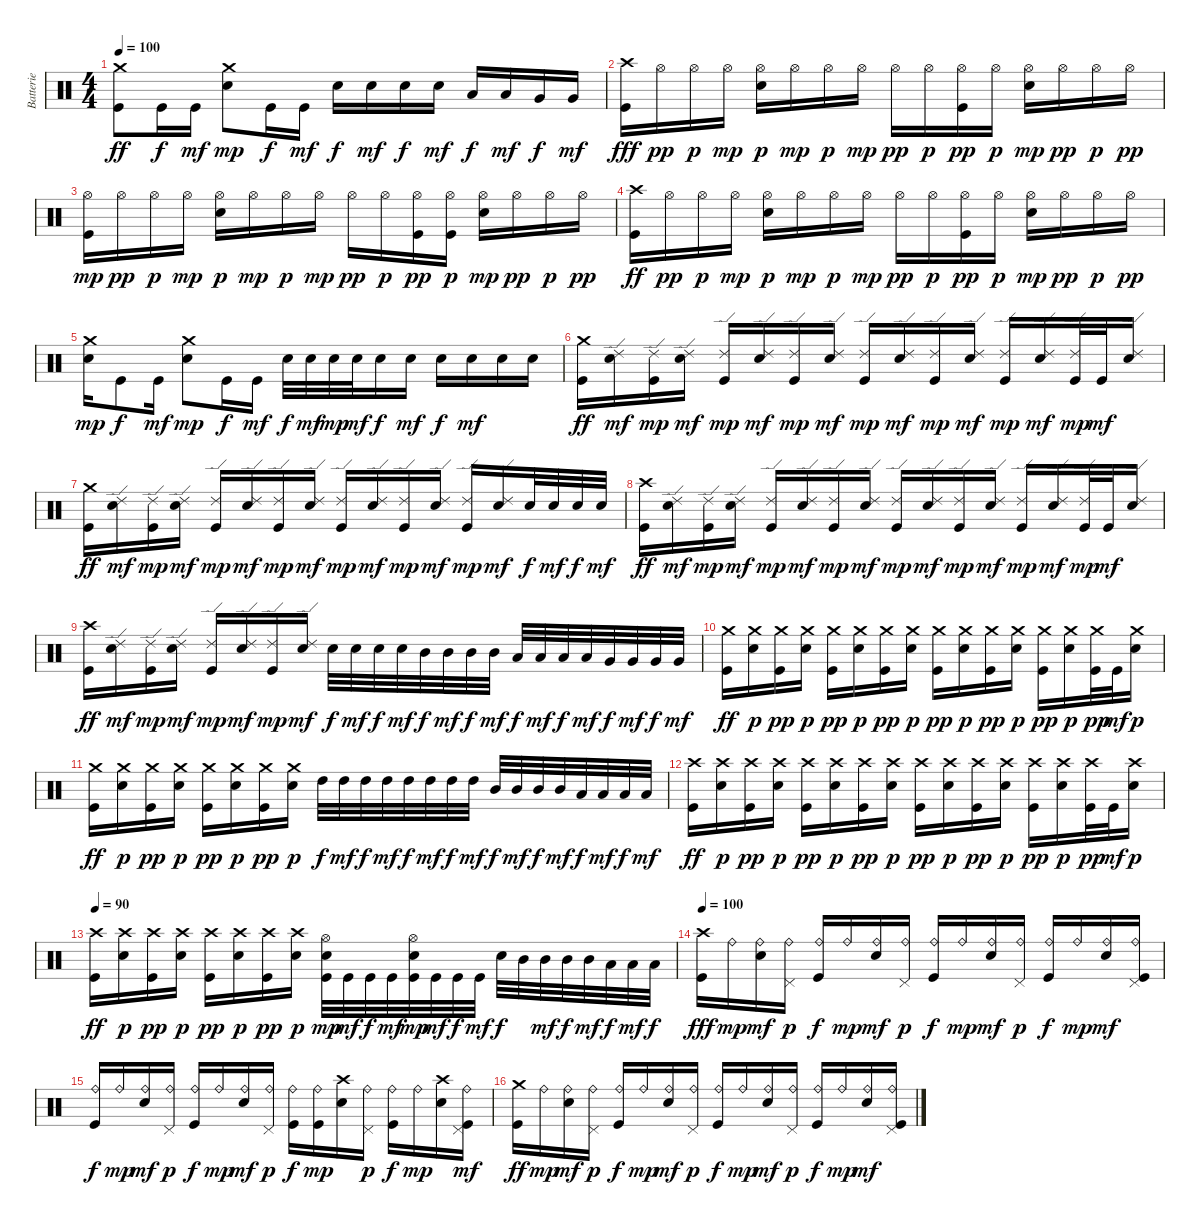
\track ("Batterie" "Batterie") {instrument percussion}
\staff {score}
\articulation defaults
\ts (4 4)
\tempo 100
\clef neutral
\ks c
("Crash medium (hit)" "Kick (hit)").8{dy ff} "Kick (hit)".16{dy f} "Kick (hit)".16{dy mf} ("Crash medium (hit)" "Snare (hit) 2").8{dy mp} "Kick (hit)".16{dy f} "Kick (hit)".16{dy mf} "Snare (hit) 2".16{dy f} "Snare (hit) 2".16{dy mf} "Snare (hit) 2".16{dy f} "Snare (hit) 2".16{dy mf} "Low Tom (hit)".16{dy f} "Low Tom (hit)".16{dy mf} "Very Low Tom (hit)".16{dy f} "Very Low Tom (hit)".16{dy mf} |
("Crash high (hit)" "Kick (hit)").16{dy fff} "Hi-Hat (open)".16{dy pp} "Hi-Hat (open)".16{dy p} "Hi-Hat (open)".16{dy mp} ("Hi-Hat (open)" "Snare (hit) 2").16{dy p} "Hi-Hat (open)".16{dy mp} "Hi-Hat (open)".16{dy p} "Hi-Hat (open)".16{dy mp} "Hi-Hat (open)".16{dy pp} "Hi-Hat (open)".16{dy p} ("Hi-Hat (open)" "Kick (hit)").16{dy pp} "Hi-Hat (open)".16{dy p} ("Hi-Hat (open)" "Snare (hit) 2").16{dy mp} "Hi-Hat (open)".16{dy pp} "Hi-Hat (open)".16{dy p} "Hi-Hat (open)".16{dy pp} |
("Hi-Hat (open)" "Kick (hit)").16{dy mp} "Hi-Hat (open)".16{dy pp} "Hi-Hat (open)".16{dy p} "Hi-Hat (open)".16{dy mp} ("Hi-Hat (open)" "Snare (hit) 2").16{dy p} "Hi-Hat (open)".16{dy mp} "Hi-Hat (open)".16{dy p} "Hi-Hat (open)".16{dy mp} "Hi-Hat (open)".16{dy pp} "Hi-Hat (open)".16{dy p} ("Hi-Hat (open)" "Kick (hit)").16{dy pp} ("Hi-Hat (open)" "Kick (hit)").16{dy p} ("Hi-Hat (open)" "Snare (hit) 2").16{dy mp} "Hi-Hat (open)".16{dy pp} "Hi-Hat (open)".16{dy p} "Hi-Hat (open)".16{dy pp} |
("Crash high (hit)" "Kick (hit)").16{dy ff} "Hi-Hat (open)".16{dy pp} "Hi-Hat (open)".16{dy p} "Hi-Hat (open)".16{dy mp} ("Hi-Hat (open)" "Snare (hit) 2").16{dy p} "Hi-Hat (open)".16{dy mp} "Hi-Hat (open)".16{dy p} "Hi-Hat (open)".16{dy mp} "Hi-Hat (open)".16{dy pp} "Hi-Hat (open)".16{dy p} ("Hi-Hat (open)" "Kick (hit)").16{dy pp} "Hi-Hat (open)".16{dy p} ("Hi-Hat (open)" "Snare (hit) 2").16{dy mp} "Hi-Hat (open)".16{dy pp} "Hi-Hat (open)".16{dy p} "Hi-Hat (open)".16{dy pp} |
("Crash medium (hit)" "Snare (hit) 2").16{dy mp} "Kick (hit)".8{dy f} "Kick (hit)".16{dy mf} ("Crash medium (hit)" "Snare (hit) 2").8{dy mp} "Kick (hit)".16{dy f} "Kick (hit)".16{dy mf} "Snare (hit) 2".32{dy f} "Snare (hit) 2".32{dy mf} "Snare (hit) 2".32{dy mp} "Snare (hit) 2".32{dy mf} "Snare (hit) 2".16{dy f} "Snare (hit) 2".16{dy mf} "Snare (hit) 2".16{dy f} "Snare (hit) 2".16{dy mf} "Snare (hit) 2".16 "Snare (hit) 2".16 |
("Crash medium (hit)" "Kick (hit)").16{dy ff} ("Ride (edge) 2" "Snare (hit) 2").16{dy mf} ("Ride (edge) 2" "Kick (hit)").16{dy mp} ("Ride (edge) 2" "Snare (hit) 2").16{dy mf} ("Ride (edge) 2" "Kick (hit)").16{dy mp} ("Ride (edge) 2" "Snare (hit) 2").16{dy mf} ("Ride (edge) 2" "Kick (hit)").16{dy mp} ("Ride (edge) 2" "Snare (hit) 2").16{dy mf} ("Ride (edge) 2" "Kick (hit)").16{dy mp} ("Ride (edge) 2" "Snare (hit) 2").16{dy mf} ("Ride (edge) 2" "Kick (hit)").16{dy mp} ("Ride (edge) 2" "Snare (hit) 2").16{dy mf} ("Ride (edge) 2" "Kick (hit)").16{dy mp} ("Ride (edge) 2" "Snare (hit) 2").16{dy mf} ("Ride (edge) 2" "Kick (hit)").32{dy mp} "Kick (hit)".32{dy mf} ("Ride (edge) 2" "Snare (hit) 2").16 |
("Crash medium (hit)" "Kick (hit)").16{dy ff} ("Ride (edge) 2" "Snare (hit) 2").16{dy mf} ("Ride (edge) 2" "Kick (hit)").16{dy mp} ("Ride (edge) 2" "Snare (hit) 2").16{dy mf} ("Ride (edge) 2" "Kick (hit)").16{dy mp} ("Ride (edge) 2" "Snare (hit) 2").16{dy mf} ("Ride (edge) 2" "Kick (hit)").16{dy mp} ("Ride (edge) 2" "Snare (hit) 2").16{dy mf} ("Ride (edge) 2" "Kick (hit)").16{dy mp} ("Ride (edge) 2" "Snare (hit) 2").16{dy mf} ("Ride (edge) 2" "Kick (hit)").16{dy mp} ("Ride (edge) 2" "Snare (hit) 2").16{dy mf} ("Ride (edge) 2" "Kick (hit)").16{dy mp} ("Ride (edge) 2" "Snare (hit) 2").16{dy mf} "Snare (hit) 2".32{dy f} "Snare (hit) 2".32{dy mf} "Snare (hit) 2".32{dy f} "Snare (hit) 2".32{dy mf} |
("Crash high (hit)" "Kick (hit)").16{dy ff} ("Ride (edge) 2" "Snare (hit) 2").16{dy mf} ("Ride (edge) 2" "Kick (hit)").16{dy mp} ("Ride (edge) 2" "Snare (hit) 2").16{dy mf} ("Ride (edge) 2" "Kick (hit)").16{dy mp} ("Ride (edge) 2" "Snare (hit) 2").16{dy mf} ("Ride (edge) 2" "Kick (hit)").16{dy mp} ("Ride (edge) 2" "Snare (hit) 2").16{dy mf} ("Ride (edge) 2" "Kick (hit)").16{dy mp} ("Ride (edge) 2" "Snare (hit) 2").16{dy mf} ("Ride (edge) 2" "Kick (hit)").16{dy mp} ("Ride (edge) 2" "Snare (hit) 2").16{dy mf} ("Ride (edge) 2" "Kick (hit)").16{dy mp} ("Ride (edge) 2" "Snare (hit) 2").16{dy mf} ("Ride (edge) 2" "Kick (hit)").32{dy mp} "Kick (hit)".32{dy mf} ("Ride (edge) 2" "Snare (hit) 2").16 |
("Crash high (hit)" "Kick (hit)").16{dy ff} ("Ride (edge) 2" "Snare (hit) 2").16{dy mf} ("Ride (edge) 2" "Kick (hit)").16{dy mp} ("Ride (edge) 2" "Snare (hit) 2").16{dy mf} ("Ride (edge) 2" "Kick (hit)").16{dy mp} ("Ride (edge) 2" "Snare (hit) 2").16{dy mf} ("Ride (edge) 2" "Kick (hit)").16{dy mp} ("Ride (edge) 2" "Snare (hit) 2").16{dy mf} "Snare (hit) 2".32{dy f} "Snare (hit) 2".32{dy mf} "Snare (hit) 2".32{dy f} "Snare (hit) 2".32{dy mf} "Mid Tom (hit)".32{dy f} "Mid Tom (hit)".32{dy mf} "Mid Tom (hit)".32{dy f} "Mid Tom (hit)".32{dy mf} "Low Tom (hit)".32{dy f} "Low Tom (hit)".32{dy mf} "Low Tom (hit)".32{dy f} "Low Tom (hit)".32{dy mf} "Very Low Tom (hit)".32{dy f} "Very Low Tom (hit)".32{dy mf} "Very Low Tom (hit)".32{dy f} "Very Low Tom (hit)".32{dy mf} |
("Crash medium (hit)" "Kick (hit)").16{dy ff} ("Crash medium (hit)" "Snare (hit) 2").16{dy p} ("Crash medium (hit)" "Kick (hit)").16{dy pp} ("Crash medium (hit)" "Snare (hit) 2").16{dy p} ("Crash medium (hit)" "Kick (hit)").16{dy pp} ("Crash medium (hit)" "Snare (hit) 2").16{dy p} ("Crash medium (hit)" "Kick (hit)").16{dy pp} ("Crash medium (hit)" "Snare (hit) 2").16{dy p} ("Crash medium (hit)" "Kick (hit)").16{dy pp} ("Crash medium (hit)" "Snare (hit) 2").16{dy p} ("Crash medium (hit)" "Kick (hit)").16{dy pp} ("Crash medium (hit)" "Snare (hit) 2").16{dy p} ("Crash medium (hit)" "Kick (hit)").16{dy pp} ("Crash medium (hit)" "Snare (hit) 2").16{dy p} ("Crash medium (hit)" "Kick (hit)").32{dy pp} "Kick (hit)".32{dy mf} ("Crash medium (hit)" "Snare (hit) 2").16{dy p} |
("Crash medium (hit)" "Kick (hit)").16{dy ff} ("Crash medium (hit)" "Snare (hit) 2").16{dy p} ("Crash medium (hit)" "Kick (hit)").16{dy pp} ("Crash medium (hit)" "Snare (hit) 2").16{dy p} ("Crash medium (hit)" "Kick (hit)").16{dy pp} ("Crash medium (hit)" "Snare (hit) 2").16{dy p} ("Crash medium (hit)" "Kick (hit)").16{dy pp} ("Crash medium (hit)" "Snare (hit) 2").16{dy p} "High Tom (hit)".32{dy f} "High Tom (hit)".32{dy mf} "High Tom (hit)".32{dy f} "High Tom (hit)".32{dy mf} "High Tom (hit)".32{dy f} "High Tom (hit)".32{dy mf} "High Tom (hit)".32{dy f} "High Tom (hit)".32{dy mf} "Mid Tom (hit)".32{dy f} "Mid Tom (hit)".32{dy mf} "Mid Tom (hit)".32{dy f} "Mid Tom (hit)".32{dy mf} "Low Tom (hit)".32{dy f} "Low Tom (hit)".32{dy mf} "Low Tom (hit)".32{dy f} "Low Tom (hit)".32{dy mf} |
("Crash high (hit)" "Kick (hit)").16{dy ff} ("Crash high (hit)" "Snare (hit) 2").16{dy p} ("Crash high (hit)" "Kick (hit)").16{dy pp} ("Crash high (hit)" "Snare (hit) 2").16{dy p} ("Crash high (hit)" "Kick (hit)").16{dy pp} ("Crash high (hit)" "Snare (hit) 2").16{dy p} ("Crash high (hit)" "Kick (hit)").16{dy pp} ("Crash high (hit)" "Snare (hit) 2").16{dy p} ("Crash high (hit)" "Kick (hit)").16{dy pp} ("Crash high (hit)" "Snare (hit) 2").16{dy p} ("Crash high (hit)" "Kick (hit)").16{dy pp} ("Crash high (hit)" "Snare (hit) 2").16{dy p} ("Crash high (hit)" "Kick (hit)").16{dy pp} ("Crash high (hit)" "Snare (hit) 2").16{dy p} ("Crash high (hit)" "Kick (hit)").32{dy pp} "Kick (hit)".32{dy mf} ("Crash high (hit)" "Snare (hit) 2").16{dy p} |
\tempo 90
("Crash high (hit)" "Kick (hit)").16{dy ff} ("Crash high (hit)" "Snare (hit) 2").16{dy p} ("Crash high (hit)" "Kick (hit)").16{dy pp} ("Crash high (hit)" "Snare (hit) 2").16{dy p} ("Crash high (hit)" "Kick (hit)").16{dy pp} ("Crash high (hit)" "Snare (hit) 2").16{dy p} ("Crash high (hit)" "Kick (hit)").16{dy pp} ("Crash high (hit)" "Snare (hit) 2").16{dy p} ("Hi-Hat (open)" "Snare (hit) 2" "Kick (hit)").32{dy mp} "Kick (hit)".32{dy mf} "Kick (hit)".32{dy f} "Kick (hit)".32{dy mf} ("Hi-Hat (open)" "Snare (hit) 2" "Kick (hit)").32{dy mp} "Kick (hit)".32{dy mf} "Kick (hit)".32{dy f} "Kick (hit)".32{dy mf} "Snare (hit) 2".32{dy f} "Mid Tom (hit)".32 "Mid Tom (hit)".32{dy mf} "Mid Tom (hit)".32{dy f} "Mid Tom (hit)".32{dy mf} "Low Tom (hit)".32{dy f} "Low Tom (hit)".32{dy mf} "Low Tom (hit)".32{dy f} |
\tempo 100
("Crash high (hit)" "Kick (hit)").16{dy fff} "Ride (bell)".16{dy mp} ("Ride (bell)" "Snare (hit) 2").16{dy mf} ("Ride (bell)" "Pedal Hi-Hat (hit)").16{dy p} ("Ride (bell)" "Kick (hit)").16{dy f} "Ride (bell)".16{dy mp} ("Ride (bell)" "Snare (hit) 2").16{dy mf} ("Ride (bell)" "Pedal Hi-Hat (hit)").16{dy p} ("Ride (bell)" "Kick (hit)").16{dy f} "Ride (bell)".16{dy mp} ("Ride (bell)" "Snare (hit) 2").16{dy mf} ("Ride (bell)" "Pedal Hi-Hat (hit)").16{dy p} ("Ride (bell)" "Kick (hit)").16{dy f} "Ride (bell)".16{dy mp} ("Ride (bell)" "Snare (hit) 2").16{dy mf} ("Ride (bell)" "Pedal Hi-Hat (hit)" "Kick (hit)").16 |
("Ride (bell)" "Kick (hit)").16{dy f} "Ride (bell)".16{dy mp} ("Ride (bell)" "Snare (hit) 2").16{dy mf} ("Ride (bell)" "Pedal Hi-Hat (hit)").16{dy p} ("Ride (bell)" "Kick (hit)").16{dy f} "Ride (bell)".16{dy mp} ("Ride (bell)" "Snare (hit) 2").16{dy mf} ("Ride (bell)" "Pedal Hi-Hat (hit)").16{dy p} ("Ride (bell)" "Kick (hit)").16{dy f} ("Ride (bell)" "Kick (hit)").16{dy mp} ("Crash high (hit)" "Snare (hit) 2").16 ("Ride (bell)" "Pedal Hi-Hat (hit)").16{dy p} ("Ride (bell)" "Kick (hit)").16{dy f} "Ride (bell)".16{dy mp} ("Crash high (hit)" "Snare (hit) 2").16 ("Ride (bell)" "Pedal Hi-Hat (hit)" "Kick (hit)").16{dy mf} |
("Crash medium (hit)" "Kick (hit)").16{dy ff} "Ride (bell)".16{dy mp} ("Ride (bell)" "Snare (hit) 2").16{dy mf} ("Ride (bell)" "Pedal Hi-Hat (hit)").16{dy p} ("Ride (bell)" "Kick (hit)").16{dy f} "Ride (bell)".16{dy mp} ("Ride (bell)" "Snare (hit) 2").16{dy mf} ("Ride (bell)" "Pedal Hi-Hat (hit)").16{dy p} ("Ride (bell)" "Kick (hit)").16{dy f} "Ride (bell)".16{dy mp} ("Ride (bell)" "Snare (hit) 2").16{dy mf} ("Ride (bell)" "Pedal Hi-Hat (hit)").16{dy p} ("Ride (bell)" "Kick (hit)").16{dy f} "Ride (bell)".16{dy mp} ("Ride (bell)" "Snare (hit) 2").16{dy mf} ("Ride (bell)" "Pedal Hi-Hat (hit)" "Kick (hit)").16
